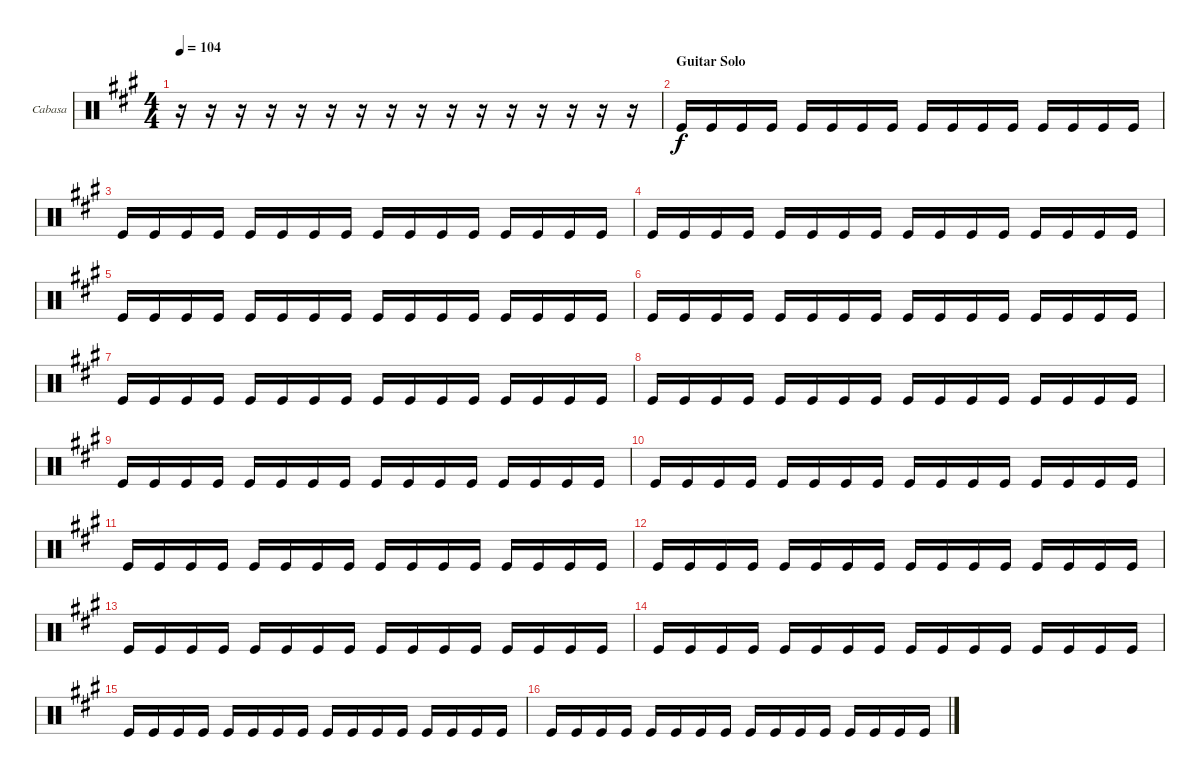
\bracketExtendMode groupsimilarinstruments
\firstSystemTrackNameOrientation horizontal
\otherSystemsTrackNameOrientation horizontal
\track ("Cabasa" "Cabasa") {instrument percussion}
\staff {score}
\articulation defaults
\ts (4 4)
\tempo 104
\clef neutral
\ks a
r.16{dy f} r.16 r.16 r.16 r.16 r.16 r.16 r.16 r.16 r.16 r.16 r.16 r.16 r.16 r.16 r.16 |
\section ("" "Guitar Solo")
"Kick (hit)".16 "Kick (hit)".16 "Kick (hit)".16 "Kick (hit)".16 "Kick (hit)".16 "Kick (hit)".16 "Kick (hit)".16 "Kick (hit)".16 "Kick (hit)".16 "Kick (hit)".16 "Kick (hit)".16 "Kick (hit)".16 "Kick (hit)".16 "Kick (hit)".16 "Kick (hit)".16 "Kick (hit)".16 |
"Kick (hit)".16 "Kick (hit)".16 "Kick (hit)".16 "Kick (hit)".16 "Kick (hit)".16 "Kick (hit)".16 "Kick (hit)".16 "Kick (hit)".16 "Kick (hit)".16 "Kick (hit)".16 "Kick (hit)".16 "Kick (hit)".16 "Kick (hit)".16 "Kick (hit)".16 "Kick (hit)".16 "Kick (hit)".16 |
"Kick (hit)".16 "Kick (hit)".16 "Kick (hit)".16 "Kick (hit)".16 "Kick (hit)".16 "Kick (hit)".16 "Kick (hit)".16 "Kick (hit)".16 "Kick (hit)".16 "Kick (hit)".16 "Kick (hit)".16 "Kick (hit)".16 "Kick (hit)".16 "Kick (hit)".16 "Kick (hit)".16 "Kick (hit)".16 |
"Kick (hit)".16 "Kick (hit)".16 "Kick (hit)".16 "Kick (hit)".16 "Kick (hit)".16 "Kick (hit)".16 "Kick (hit)".16 "Kick (hit)".16 "Kick (hit)".16 "Kick (hit)".16 "Kick (hit)".16 "Kick (hit)".16 "Kick (hit)".16 "Kick (hit)".16 "Kick (hit)".16 "Kick (hit)".16 |
"Kick (hit)".16 "Kick (hit)".16 "Kick (hit)".16 "Kick (hit)".16 "Kick (hit)".16 "Kick (hit)".16 "Kick (hit)".16 "Kick (hit)".16 "Kick (hit)".16 "Kick (hit)".16 "Kick (hit)".16 "Kick (hit)".16 "Kick (hit)".16 "Kick (hit)".16 "Kick (hit)".16 "Kick (hit)".16 |
"Kick (hit)".16 "Kick (hit)".16 "Kick (hit)".16 "Kick (hit)".16 "Kick (hit)".16 "Kick (hit)".16 "Kick (hit)".16 "Kick (hit)".16 "Kick (hit)".16 "Kick (hit)".16 "Kick (hit)".16 "Kick (hit)".16 "Kick (hit)".16 "Kick (hit)".16 "Kick (hit)".16 "Kick (hit)".16 |
"Kick (hit)".16 "Kick (hit)".16 "Kick (hit)".16 "Kick (hit)".16 "Kick (hit)".16 "Kick (hit)".16 "Kick (hit)".16 "Kick (hit)".16 "Kick (hit)".16 "Kick (hit)".16 "Kick (hit)".16 "Kick (hit)".16 "Kick (hit)".16 "Kick (hit)".16 "Kick (hit)".16 "Kick (hit)".16 |
"Kick (hit)".16 "Kick (hit)".16 "Kick (hit)".16 "Kick (hit)".16 "Kick (hit)".16 "Kick (hit)".16 "Kick (hit)".16 "Kick (hit)".16 "Kick (hit)".16 "Kick (hit)".16 "Kick (hit)".16 "Kick (hit)".16 "Kick (hit)".16 "Kick (hit)".16 "Kick (hit)".16 "Kick (hit)".16 |
"Kick (hit)".16 "Kick (hit)".16 "Kick (hit)".16 "Kick (hit)".16 "Kick (hit)".16 "Kick (hit)".16 "Kick (hit)".16 "Kick (hit)".16 "Kick (hit)".16 "Kick (hit)".16 "Kick (hit)".16 "Kick (hit)".16 "Kick (hit)".16 "Kick (hit)".16 "Kick (hit)".16 "Kick (hit)".16 |
"Kick (hit)".16 "Kick (hit)".16 "Kick (hit)".16 "Kick (hit)".16 "Kick (hit)".16 "Kick (hit)".16 "Kick (hit)".16 "Kick (hit)".16 "Kick (hit)".16 "Kick (hit)".16 "Kick (hit)".16 "Kick (hit)".16 "Kick (hit)".16 "Kick (hit)".16 "Kick (hit)".16 "Kick (hit)".16 |
"Kick (hit)".16 "Kick (hit)".16 "Kick (hit)".16 "Kick (hit)".16 "Kick (hit)".16 "Kick (hit)".16 "Kick (hit)".16 "Kick (hit)".16 "Kick (hit)".16 "Kick (hit)".16 "Kick (hit)".16 "Kick (hit)".16 "Kick (hit)".16 "Kick (hit)".16 "Kick (hit)".16 "Kick (hit)".16 |
"Kick (hit)".16 "Kick (hit)".16 "Kick (hit)".16 "Kick (hit)".16 "Kick (hit)".16 "Kick (hit)".16 "Kick (hit)".16 "Kick (hit)".16 "Kick (hit)".16 "Kick (hit)".16 "Kick (hit)".16 "Kick (hit)".16 "Kick (hit)".16 "Kick (hit)".16 "Kick (hit)".16 "Kick (hit)".16 |
"Kick (hit)".16 "Kick (hit)".16 "Kick (hit)".16 "Kick (hit)".16 "Kick (hit)".16 "Kick (hit)".16 "Kick (hit)".16 "Kick (hit)".16 "Kick (hit)".16 "Kick (hit)".16 "Kick (hit)".16 "Kick (hit)".16 "Kick (hit)".16 "Kick (hit)".16 "Kick (hit)".16 "Kick (hit)".16 |
"Kick (hit)".16 "Kick (hit)".16 "Kick (hit)".16 "Kick (hit)".16 "Kick (hit)".16 "Kick (hit)".16 "Kick (hit)".16 "Kick (hit)".16 "Kick (hit)".16 "Kick (hit)".16 "Kick (hit)".16 "Kick (hit)".16 "Kick (hit)".16 "Kick (hit)".16 "Kick (hit)".16 "Kick (hit)".16 |
"Kick (hit)".16 "Kick (hit)".16 "Kick (hit)".16 "Kick (hit)".16 "Kick (hit)".16 "Kick (hit)".16 "Kick (hit)".16 "Kick (hit)".16 "Kick (hit)".16 "Kick (hit)".16 "Kick (hit)".16 "Kick (hit)".16 "Kick (hit)".16 "Kick (hit)".16 "Kick (hit)".16 "Kick (hit)".16
